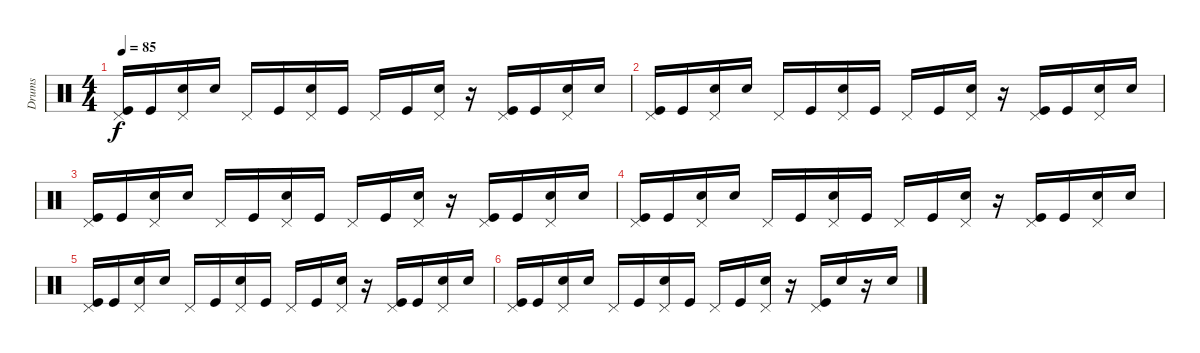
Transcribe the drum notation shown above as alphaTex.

\track ("Drums" "Drums") {instrument percussion}
\staff {score}
\articulation defaults
\ts (4 4)
\tempo 85
\clef neutral
\ks c
("Pedal Hi-Hat (hit)" "Kick (hit)").16{dy f} "Kick (hit)".16 ("Pedal Hi-Hat (hit)" "Snare (hit) 2").16 "Snare (hit) 2".16 "Pedal Hi-Hat (hit)".16 "Kick (hit)".16 ("Pedal Hi-Hat (hit)" "Snare (hit) 2").16 "Kick (hit)".16 "Pedal Hi-Hat (hit)".16 "Kick (hit)".16 ("Pedal Hi-Hat (hit)" "Snare (hit) 2").16 r.16 ("Pedal Hi-Hat (hit)" "Kick (hit)").16 "Kick (hit)".16 ("Pedal Hi-Hat (hit)" "Snare (hit) 2").16 "Snare (hit) 2".16 |
("Pedal Hi-Hat (hit)" "Kick (hit)").16 "Kick (hit)".16 ("Pedal Hi-Hat (hit)" "Snare (hit) 2").16 "Snare (hit) 2".16 "Pedal Hi-Hat (hit)".16 "Kick (hit)".16 ("Pedal Hi-Hat (hit)" "Snare (hit) 2").16 "Kick (hit)".16 "Pedal Hi-Hat (hit)".16 "Kick (hit)".16 ("Pedal Hi-Hat (hit)" "Snare (hit) 2").16 r.16 ("Pedal Hi-Hat (hit)" "Kick (hit)").16 "Kick (hit)".16 ("Pedal Hi-Hat (hit)" "Snare (hit) 2").16 "Snare (hit) 2".16 |
("Pedal Hi-Hat (hit)" "Kick (hit)").16 "Kick (hit)".16 ("Pedal Hi-Hat (hit)" "Snare (hit) 2").16 "Snare (hit) 2".16 "Pedal Hi-Hat (hit)".16 "Kick (hit)".16 ("Pedal Hi-Hat (hit)" "Snare (hit) 2").16 "Kick (hit)".16 "Pedal Hi-Hat (hit)".16 "Kick (hit)".16 ("Pedal Hi-Hat (hit)" "Snare (hit) 2").16 r.16 ("Pedal Hi-Hat (hit)" "Kick (hit)").16 "Kick (hit)".16 ("Pedal Hi-Hat (hit)" "Snare (hit) 2").16 "Snare (hit) 2".16 |
("Pedal Hi-Hat (hit)" "Kick (hit)").16 "Kick (hit)".16 ("Pedal Hi-Hat (hit)" "Snare (hit) 2").16 "Snare (hit) 2".16 "Pedal Hi-Hat (hit)".16 "Kick (hit)".16 ("Pedal Hi-Hat (hit)" "Snare (hit) 2").16 "Kick (hit)".16 "Pedal Hi-Hat (hit)".16 "Kick (hit)".16 ("Pedal Hi-Hat (hit)" "Snare (hit) 2").16 r.16 ("Pedal Hi-Hat (hit)" "Kick (hit)").16 "Kick (hit)".16 ("Pedal Hi-Hat (hit)" "Snare (hit) 2").16 "Snare (hit) 2".16 |
("Pedal Hi-Hat (hit)" "Kick (hit)").16 "Kick (hit)".16 ("Pedal Hi-Hat (hit)" "Snare (hit) 2").16 "Snare (hit) 2".16 "Pedal Hi-Hat (hit)".16 "Kick (hit)".16 ("Pedal Hi-Hat (hit)" "Snare (hit) 2").16 "Kick (hit)".16 "Pedal Hi-Hat (hit)".16 "Kick (hit)".16 ("Pedal Hi-Hat (hit)" "Snare (hit) 2").16 r.16 ("Pedal Hi-Hat (hit)" "Kick (hit)").16 "Kick (hit)".16 ("Pedal Hi-Hat (hit)" "Snare (hit) 2").16 "Snare (hit) 2".16 |
("Pedal Hi-Hat (hit)" "Kick (hit)").16 "Kick (hit)".16 ("Pedal Hi-Hat (hit)" "Snare (hit) 2").16 "Snare (hit) 2".16 "Pedal Hi-Hat (hit)".16 "Kick (hit)".16 ("Pedal Hi-Hat (hit)" "Snare (hit) 2").16 "Kick (hit)".16 "Pedal Hi-Hat (hit)".16 "Kick (hit)".16 ("Pedal Hi-Hat (hit)" "Snare (hit) 2").16 r.16 ("Pedal Hi-Hat (hit)" "Kick (hit)").16 "Snare (hit) 2".16 r.16 "Snare (hit) 2".16
